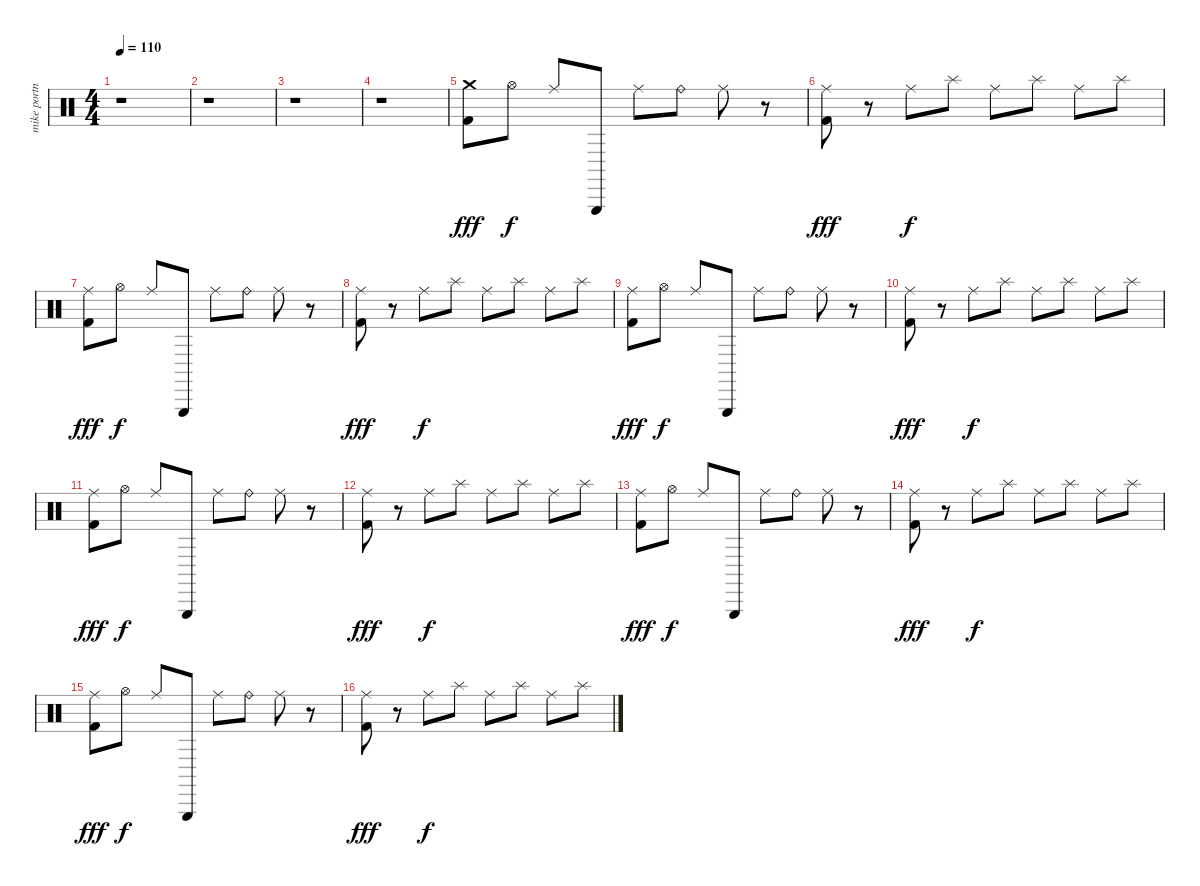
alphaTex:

\track ("mike portnoy" "mike portn") {instrument percussion}
\staff {score}
\articulation defaults
\ts (4 4)
\tempo 110
\clef neutral
\ks c
r.1{dy fff} |
r.1 |
r.1 |
r.1 |
("Crash medium (hit)" "Kick (hit) 2").8 "Hi-Hat (open)".8{dy f} "Ride (middle)".8 "Triangle (hit)".8 "Ride (middle)".8 "Ride (bell)".8 "Ride (middle)".8 r.8 |
("Ride (middle)" "Kick (hit) 2").8{dy fff} r.8 "Ride (middle)".8{dy f} "Splash (hit)".8 "Ride (middle)".8 "Splash (hit)".8 "Ride (middle)".8 "Splash (hit)".8 |
("Ride (middle)" "Kick (hit) 2").8{dy fff} "Hi-Hat (open)".8{dy f} "Ride (middle)".8 "Triangle (hit)".8 "Ride (middle)".8 "Ride (bell)".8 "Ride (middle)".8 r.8 |
("Ride (middle)" "Kick (hit) 2").8{dy fff} r.8 "Ride (middle)".8{dy f} "Splash (hit)".8 "Ride (middle)".8 "Splash (hit)".8 "Ride (middle)".8 "Splash (hit)".8 |
("Ride (middle)" "Kick (hit) 2").8{dy fff} "Hi-Hat (open)".8{dy f} "Ride (middle)".8 "Triangle (hit)".8 "Ride (middle)".8 "Ride (bell)".8 "Ride (middle)".8 r.8 |
("Ride (middle)" "Kick (hit) 2").8{dy fff} r.8 "Ride (middle)".8{dy f} "Splash (hit)".8 "Ride (middle)".8 "Splash (hit)".8 "Ride (middle)".8 "Splash (hit)".8 |
("Ride (middle)" "Kick (hit) 2").8{dy fff} "Hi-Hat (open)".8{dy f} "Ride (middle)".8 "Triangle (hit)".8 "Ride (middle)".8 "Ride (bell)".8 "Ride (middle)".8 r.8 |
("Ride (middle)" "Kick (hit) 2").8{dy fff} r.8 "Ride (middle)".8{dy f} "Splash (hit)".8 "Ride (middle)".8 "Splash (hit)".8 "Ride (middle)".8 "Splash (hit)".8 |
("Ride (middle)" "Kick (hit) 2").8{dy fff} "Hi-Hat (open)".8{dy f} "Ride (middle)".8 "Triangle (hit)".8 "Ride (middle)".8 "Ride (bell)".8 "Ride (middle)".8 r.8 |
("Ride (middle)" "Kick (hit) 2").8{dy fff} r.8 "Ride (middle)".8{dy f} "Splash (hit)".8 "Ride (middle)".8 "Splash (hit)".8 "Ride (middle)".8 "Splash (hit)".8 |
("Ride (middle)" "Kick (hit) 2").8{dy fff} "Hi-Hat (open)".8{dy f} "Ride (middle)".8 "Triangle (hit)".8 "Ride (middle)".8 "Ride (bell)".8 "Ride (middle)".8 r.8 |
("Ride (middle)" "Kick (hit) 2").8{dy fff} r.8 "Ride (middle)".8{dy f} "Splash (hit)".8 "Ride (middle)".8 "Splash (hit)".8 "Ride (middle)".8 "Splash (hit)".8
